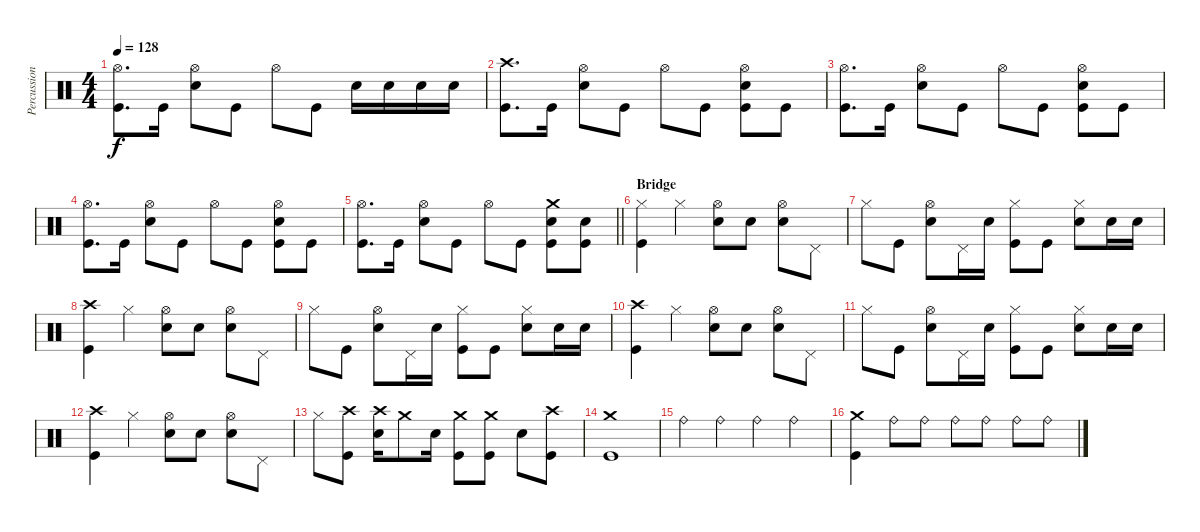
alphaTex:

\track ("Percussion" "Percussion") {instrument percussion}
\staff {score}
\articulation defaults
\ts (4 4)
\tempo 128
\clef neutral
\ks c
("Hi-Hat (open)" "Kick (hit)").8{d dy f} "Kick (hit)".16 ("Hi-Hat (open)" "Electric Snare (hit)").8 "Kick (hit)".8 "Hi-Hat (open)".8 "Kick (hit)".8 "Electric Snare (hit)".16 "Electric Snare (hit)".16 "Electric Snare (hit)".16 "Electric Snare (hit)".16 |
("Crash high (hit)" "Kick (hit)").8{d} "Kick (hit)".16 ("Hi-Hat (open)" "Electric Snare (hit)").8 "Kick (hit)".8 "Hi-Hat (open)".8 "Kick (hit)".8 ("Hi-Hat (open)" "Electric Snare (hit)" "Kick (hit)").8 "Kick (hit)".8 |
("Hi-Hat (open)" "Kick (hit)").8{d} "Kick (hit)".16 ("Hi-Hat (open)" "Electric Snare (hit)").8 "Kick (hit)".8 "Hi-Hat (open)".8 "Kick (hit)".8 ("Hi-Hat (open)" "Electric Snare (hit)" "Kick (hit)").8 "Kick (hit)".8 |
("Hi-Hat (open)" "Kick (hit)").8{d} "Kick (hit)".16 ("Hi-Hat (open)" "Electric Snare (hit)").8 "Kick (hit)".8 "Hi-Hat (open)".8 "Kick (hit)".8 ("Hi-Hat (open)" "Electric Snare (hit)" "Kick (hit)").8 "Kick (hit)".8 |
\barLineRight lightlight
("Hi-Hat (open)" "Kick (hit)").8{d} "Kick (hit)".16 ("Hi-Hat (open)" "Electric Snare (hit)").8 "Kick (hit)".8 "Hi-Hat (open)".8 "Kick (hit)".8 ("Crash medium (hit)" "Electric Snare (hit)" "Kick (hit)").8 ("Electric Snare (hit)" "Kick (hit)").8 |
\section ("" "Bridge")
("Hi-Hat (closed)" "Kick (hit)").4 "Hi-Hat (closed)".4 ("Hi-Hat (open)" "Electric Snare (hit)").8 "Electric Snare (hit)".8 ("Hi-Hat (open)" "Electric Snare (hit)").8 "Pedal Hi-Hat (hit)".8 |
"Hi-Hat (closed)".8 "Kick (hit)".8 ("Hi-Hat (open)" "Electric Snare (hit)").8 "Pedal Hi-Hat (hit)".16 "Electric Snare (hit)".16 ("Hi-Hat (closed)" "Kick (hit)").8 "Kick (hit)".8 ("Hi-Hat (closed)" "Electric Snare (hit)").8 "Electric Snare (hit)".16 "Electric Snare (hit)".16 |
("Crash high (hit)" "Kick (hit)").4 "Hi-Hat (closed)".4 ("Hi-Hat (open)" "Electric Snare (hit)").8 "Electric Snare (hit)".8 ("Hi-Hat (open)" "Electric Snare (hit)").8 "Pedal Hi-Hat (hit)".8 |
"Hi-Hat (closed)".8 "Kick (hit)".8 ("Hi-Hat (open)" "Electric Snare (hit)").8 "Pedal Hi-Hat (hit)".16 "Electric Snare (hit)".16 ("Hi-Hat (closed)" "Kick (hit)").8 "Kick (hit)".8 ("Hi-Hat (closed)" "Electric Snare (hit)").8 "Electric Snare (hit)".16 "Electric Snare (hit)".16 |
("Crash high (hit)" "Kick (hit)").4 "Hi-Hat (closed)".4 ("Hi-Hat (open)" "Electric Snare (hit)").8 "Electric Snare (hit)".8 ("Hi-Hat (open)" "Electric Snare (hit)").8 "Pedal Hi-Hat (hit)".8 |
"Hi-Hat (closed)".8 "Kick (hit)".8 ("Hi-Hat (open)" "Electric Snare (hit)").8 "Pedal Hi-Hat (hit)".16 "Electric Snare (hit)".16 ("Hi-Hat (closed)" "Kick (hit)").8 "Kick (hit)".8 ("Hi-Hat (closed)" "Electric Snare (hit)").8 "Electric Snare (hit)".16 "Electric Snare (hit)".16 |
("Crash high (hit)" "Kick (hit)").4 "Hi-Hat (closed)".4 ("Hi-Hat (open)" "Electric Snare (hit)").8 "Electric Snare (hit)".8 ("Hi-Hat (open)" "Electric Snare (hit)").8 "Pedal Hi-Hat (hit)".8 |
"Hi-Hat (closed)".8 ("Crash high (hit)" "Kick (hit)").8 ("Crash high (hit)" "Electric Snare (hit)").16 "Crash medium (hit)".8 "Electric Snare (hit)".16 ("Crash medium (hit)" "Kick (hit)").8 ("Crash medium (hit)" "Kick (hit)").8 "Electric Snare (hit)".8 ("Crash high (hit)" "Kick (hit)").8 |
("Crash medium (hit)" "Kick (hit)").1 |
"Ride (bell)".4 "Ride (bell)".4 "Ride (bell)".4 "Ride (bell)".4 |
("Crash medium (hit)" "Kick (hit)").4 "Ride (bell)".8 "Ride (bell)".8 "Ride (bell)".8 "Ride (bell)".8 "Ride (bell)".8 "Ride (bell)".8
